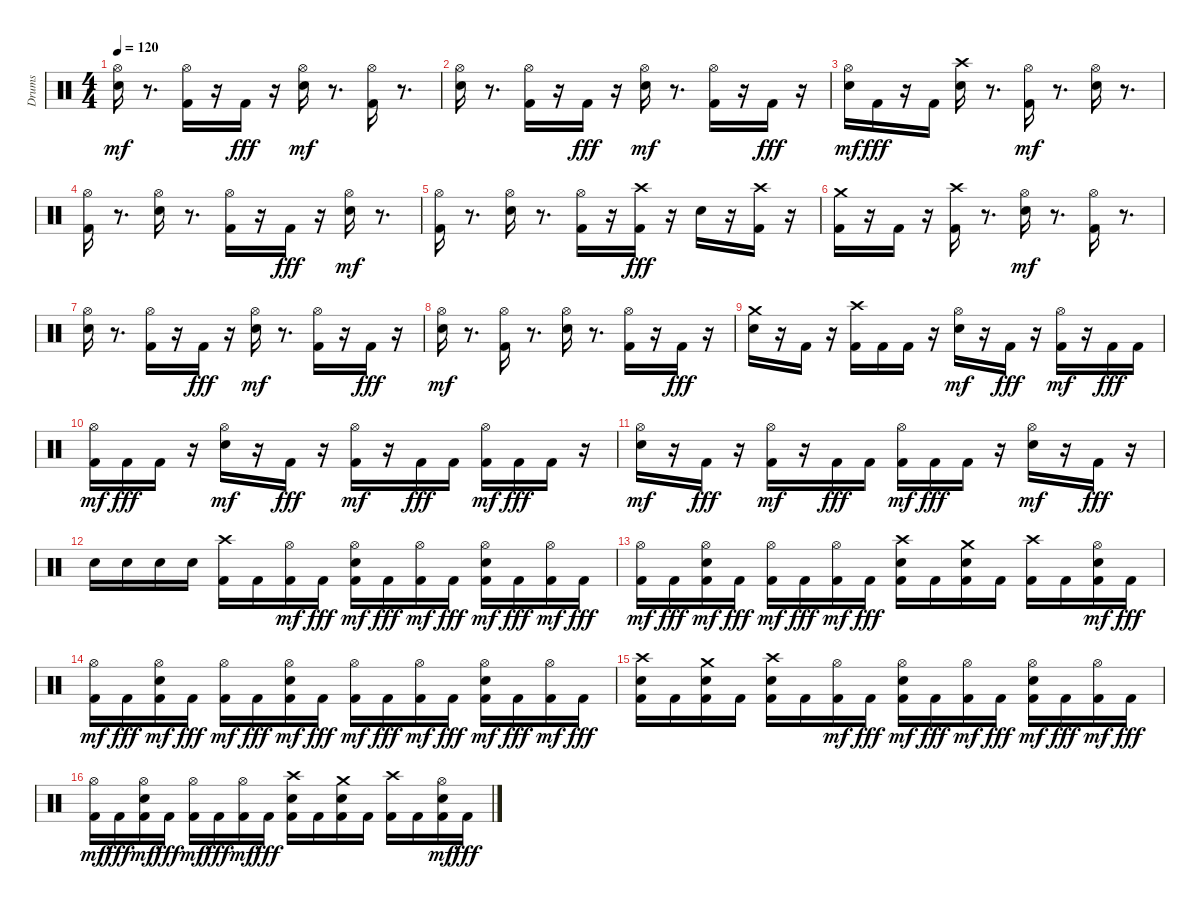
\track ("Drums" "Drums") {instrument percussion}
\staff {score}
\articulation defaults
\ts (4 4)
\tempo 120
\clef neutral
\ks c
("Electric Snare (hit)" "Hi-Hat (open)").16{dy mf} r.8{d} ("Kick (hit) 2" "Hi-Hat (open)").16 r.16 "Kick (hit) 2".16{dy fff} r.16 ("Electric Snare (hit)" "Hi-Hat (open)").16{dy mf} r.8{d} ("Kick (hit) 2" "Hi-Hat (open)").16 r.8{d} |
("Electric Snare (hit)" "Hi-Hat (open)").16 r.8{d} ("Kick (hit) 2" "Hi-Hat (open)").16 r.16 "Kick (hit) 2".16{dy fff} r.16 ("Electric Snare (hit)" "Hi-Hat (open)").16{dy mf} r.8{d} ("Kick (hit) 2" "Hi-Hat (open)").16 r.16 "Kick (hit) 2".16{dy fff} r.16 |
("Electric Snare (hit)" "Hi-Hat (open)").16{dy mf} "Kick (hit) 2".16{dy fff} r.16 "Kick (hit) 2".16 ("Electric Snare (hit)" "Crash high (hit)").16 r.8{d} ("Kick (hit) 2" "Hi-Hat (open)").16{dy mf} r.8{d} ("Electric Snare (hit)" "Hi-Hat (open)").16 r.8{d} |
("Kick (hit) 2" "Hi-Hat (open)").16 r.8{d} ("Electric Snare (hit)" "Hi-Hat (open)").16 r.8{d} ("Kick (hit) 2" "Hi-Hat (open)").16 r.16 "Kick (hit) 2".16{dy fff} r.16 ("Electric Snare (hit)" "Hi-Hat (open)").16{dy mf} r.8{d} |
("Kick (hit) 2" "Hi-Hat (open)").16 r.8{d} ("Electric Snare (hit)" "Hi-Hat (open)").16 r.8{d} ("Kick (hit) 2" "Hi-Hat (open)").16 r.16 ("Kick (hit) 2" "Crash high (hit)").16{dy fff} r.16 "Electric Snare (hit)".16 r.16 ("Kick (hit) 2" "Crash high (hit)").16 r.16 |
("Kick (hit) 2" "Crash medium (hit)").16 r.16 "Kick (hit) 2".16 r.16 ("Kick (hit) 2" "Crash high (hit)").16 r.8{d} ("Electric Snare (hit)" "Hi-Hat (open)").16{dy mf} r.8{d} ("Kick (hit) 2" "Hi-Hat (open)").16 r.8{d} |
("Electric Snare (hit)" "Hi-Hat (open)").16 r.8{d} ("Kick (hit) 2" "Hi-Hat (open)").16 r.16 "Kick (hit) 2".16{dy fff} r.16 ("Electric Snare (hit)" "Hi-Hat (open)").16{dy mf} r.8{d} ("Kick (hit) 2" "Hi-Hat (open)").16 r.16 "Kick (hit) 2".16{dy fff} r.16 |
("Electric Snare (hit)" "Hi-Hat (open)").16{dy mf} r.8{d} ("Kick (hit) 2" "Hi-Hat (open)").16 r.8{d} ("Electric Snare (hit)" "Hi-Hat (open)").16 r.8{d} ("Kick (hit) 2" "Hi-Hat (open)").16 r.16 "Kick (hit) 2".16{dy fff} r.16 |
("Electric Snare (hit)" "Crash medium (hit)").16 r.16 "Kick (hit) 2".16 r.16 ("Kick (hit) 2" "Crash high (hit)").16 "Kick (hit) 2".16 "Kick (hit) 2".16 r.16 ("Electric Snare (hit)" "Hi-Hat (open)").16{dy mf} r.16 "Kick (hit) 2".16{dy fff} r.16 ("Kick (hit) 2" "Hi-Hat (open)").16{dy mf} r.16 "Kick (hit) 2".16{dy fff} "Kick (hit) 2".16 |
("Kick (hit) 2" "Hi-Hat (open)").16{dy mf} "Kick (hit) 2".16{dy fff} "Kick (hit) 2".16 r.16 ("Electric Snare (hit)" "Hi-Hat (open)").16{dy mf} r.16 "Kick (hit) 2".16{dy fff} r.16 ("Kick (hit) 2" "Hi-Hat (open)").16{dy mf} r.16 "Kick (hit) 2".16{dy fff} "Kick (hit) 2".16 ("Kick (hit) 2" "Hi-Hat (open)").16{dy mf} "Kick (hit) 2".16{dy fff} "Kick (hit) 2".16 r.16 |
("Electric Snare (hit)" "Hi-Hat (open)").16{dy mf} r.16 "Kick (hit) 2".16{dy fff} r.16 ("Kick (hit) 2" "Hi-Hat (open)").16{dy mf} r.16 "Kick (hit) 2".16{dy fff} "Kick (hit) 2".16 ("Kick (hit) 2" "Hi-Hat (open)").16{dy mf} "Kick (hit) 2".16{dy fff} "Kick (hit) 2".16 r.16 ("Electric Snare (hit)" "Hi-Hat (open)").16{dy mf} r.16 "Kick (hit) 2".16{dy fff} r.16 |
"Electric Snare (hit)".16 "Electric Snare (hit)".16 "Electric Snare (hit)".16 "Electric Snare (hit)".16 ("Kick (hit) 2" "Crash high (hit)").16 "Kick (hit) 2".16 ("Kick (hit) 2" "Hi-Hat (open)").16{dy mf} "Kick (hit) 2".16{dy fff} ("Kick (hit) 2" "Electric Snare (hit)" "Hi-Hat (open)").16{dy mf} "Kick (hit) 2".16{dy fff} ("Kick (hit) 2" "Hi-Hat (open)").16{dy mf} "Kick (hit) 2".16{dy fff} ("Kick (hit) 2" "Electric Snare (hit)" "Hi-Hat (open)").16{dy mf} "Kick (hit) 2".16{dy fff} ("Kick (hit) 2" "Hi-Hat (open)").16{dy mf} "Kick (hit) 2".16{dy fff} |
("Kick (hit) 2" "Hi-Hat (open)").16{dy mf} "Kick (hit) 2".16{dy fff} ("Kick (hit) 2" "Electric Snare (hit)" "Hi-Hat (open)").16{dy mf} "Kick (hit) 2".16{dy fff} ("Kick (hit) 2" "Hi-Hat (open)").16{dy mf} "Kick (hit) 2".16{dy fff} ("Kick (hit) 2" "Hi-Hat (open)").16{dy mf} "Kick (hit) 2".16{dy fff} ("Kick (hit) 2" "Electric Snare (hit)" "Crash high (hit)").16 "Kick (hit) 2".16 ("Kick (hit) 2" "Electric Snare (hit)" "Crash medium (hit)").16 "Kick (hit) 2".16 ("Kick (hit) 2" "Crash high (hit)").16 "Kick (hit) 2".16 ("Kick (hit) 2" "Electric Snare (hit)" "Hi-Hat (open)").16{dy mf} "Kick (hit) 2".16{dy fff} |
("Kick (hit) 2" "Hi-Hat (open)").16{dy mf} "Kick (hit) 2".16{dy fff} ("Kick (hit) 2" "Electric Snare (hit)" "Hi-Hat (open)").16{dy mf} "Kick (hit) 2".16{dy fff} ("Kick (hit) 2" "Hi-Hat (open)").16{dy mf} "Kick (hit) 2".16{dy fff} ("Kick (hit) 2" "Electric Snare (hit)" "Hi-Hat (open)").16{dy mf} "Kick (hit) 2".16{dy fff} ("Kick (hit) 2" "Hi-Hat (open)").16{dy mf} "Kick (hit) 2".16{dy fff} ("Kick (hit) 2" "Hi-Hat (open)").16{dy mf} "Kick (hit) 2".16{dy fff} ("Kick (hit) 2" "Electric Snare (hit)" "Hi-Hat (open)").16{dy mf} "Kick (hit) 2".16{dy fff} ("Kick (hit) 2" "Hi-Hat (open)").16{dy mf} "Kick (hit) 2".16{dy fff} |
("Kick (hit) 2" "Electric Snare (hit)" "Crash high (hit)").16 "Kick (hit) 2".16 ("Kick (hit) 2" "Electric Snare (hit)" "Crash medium (hit)").16 "Kick (hit) 2".16 ("Kick (hit) 2" "Electric Snare (hit)" "Crash high (hit)").16 "Kick (hit) 2".16 ("Kick (hit) 2" "Hi-Hat (open)").16{dy mf} "Kick (hit) 2".16{dy fff} ("Kick (hit) 2" "Electric Snare (hit)" "Hi-Hat (open)").16{dy mf} "Kick (hit) 2".16{dy fff} ("Kick (hit) 2" "Hi-Hat (open)").16{dy mf} "Kick (hit) 2".16{dy fff} ("Kick (hit) 2" "Electric Snare (hit)" "Hi-Hat (open)").16{dy mf} "Kick (hit) 2".16{dy fff} ("Kick (hit) 2" "Hi-Hat (open)").16{dy mf} "Kick (hit) 2".16{dy fff} |
("Kick (hit) 2" "Hi-Hat (open)").16{dy mf} "Kick (hit) 2".16{dy fff} ("Kick (hit) 2" "Electric Snare (hit)" "Hi-Hat (open)").16{dy mf} "Kick (hit) 2".16{dy fff} ("Kick (hit) 2" "Hi-Hat (open)").16{dy mf} "Kick (hit) 2".16{dy fff} ("Kick (hit) 2" "Hi-Hat (open)").16{dy mf} "Kick (hit) 2".16{dy fff} ("Kick (hit) 2" "Electric Snare (hit)" "Crash high (hit)").16 "Kick (hit) 2".16 ("Kick (hit) 2" "Electric Snare (hit)" "Crash medium (hit)").16 "Kick (hit) 2".16 ("Kick (hit) 2" "Crash high (hit)").16 "Kick (hit) 2".16 ("Kick (hit) 2" "Electric Snare (hit)" "Hi-Hat (open)").16{dy mf} "Kick (hit) 2".16{dy fff}
